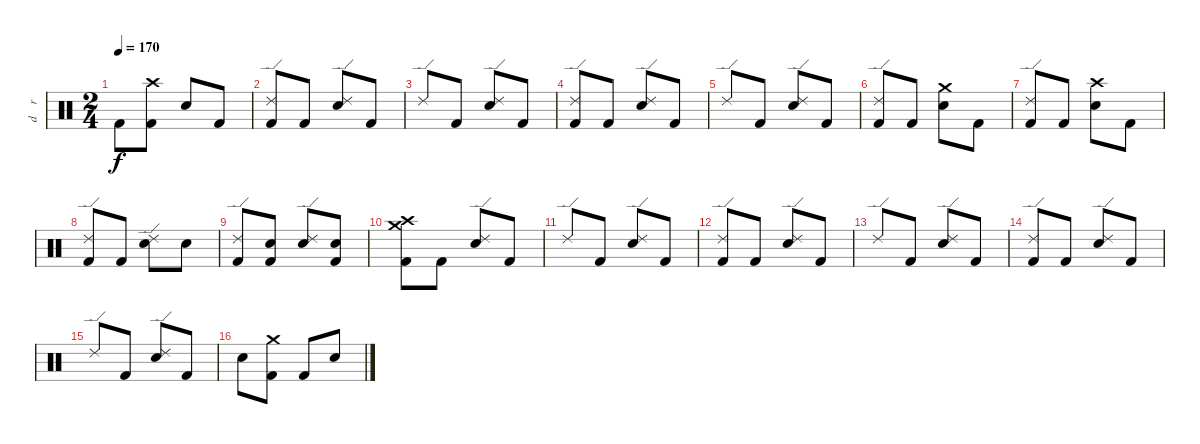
\track ("d    r     u     m    s" "d    r    ") {instrument percussion}
\staff {score}
\articulation defaults
\ts (2 4)
\tempo 170
\clef neutral
\ks c "Kick (hit) 2".8{dy f}
("Crash high (hit)" "Kick (hit) 2").8 "Electric Snare (hit)".8 "Kick (hit) 2".8 |
("Ride (edge) 2" "Kick (hit) 2").8 "Kick (hit) 2".8 ("Ride (edge) 2" "Electric Snare (hit)").8 "Kick (hit) 2".8 |
"Ride (edge) 2".8 "Kick (hit) 2".8 ("Ride (edge) 2" "Electric Snare (hit)").8 "Kick (hit) 2".8 |
("Ride (edge) 2" "Kick (hit) 2").8 "Kick (hit) 2".8 ("Ride (edge) 2" "Electric Snare (hit)").8 "Kick (hit) 2".8 |
"Ride (edge) 2".8 "Kick (hit) 2".8 ("Ride (edge) 2" "Electric Snare (hit)").8 "Kick (hit) 2".8 |
("Ride (edge) 2" "Kick (hit) 2").8 "Kick (hit) 2".8 ("Crash medium (hit)" "Electric Snare (hit)").8 "Kick (hit) 2".8 |
("Ride (edge) 2" "Kick (hit) 2").8 "Kick (hit) 2".8 ("Crash high (hit)" "Electric Snare (hit)").8 "Kick (hit) 2".8 |
("Ride (edge) 2" "Kick (hit) 2").8 "Kick (hit) 2".8 ("Ride (edge) 2" "Electric Snare (hit)").8 "Electric Snare (hit)".8 |
("Ride (edge) 2" "Kick (hit) 2").8 ("Electric Snare (hit)" "Kick (hit) 2").8 ("Ride (edge) 2" "Electric Snare (hit)").8 ("Electric Snare (hit)" "Kick (hit) 2").8 |
("Crash high (hit)" "Crash medium (hit)" "Kick (hit) 2").8 "Kick (hit) 2".8 ("Ride (edge) 2" "Electric Snare (hit)").8 "Kick (hit) 2".8 |
"Ride (edge) 2".8 "Kick (hit) 2".8 ("Ride (edge) 2" "Electric Snare (hit)").8 "Kick (hit) 2".8 |
("Ride (edge) 2" "Kick (hit) 2").8 "Kick (hit) 2".8 ("Ride (edge) 2" "Electric Snare (hit)").8 "Kick (hit) 2".8 |
"Ride (edge) 2".8 "Kick (hit) 2".8 ("Ride (edge) 2" "Electric Snare (hit)").8 "Kick (hit) 2".8 |
("Ride (edge) 2" "Kick (hit) 2").8 "Kick (hit) 2".8 ("Ride (edge) 2" "Electric Snare (hit)").8 "Kick (hit) 2".8 |
"Ride (edge) 2".8 "Kick (hit) 2".8 ("Ride (edge) 2" "Electric Snare (hit)").8 "Kick (hit) 2".8 |
"Electric Snare (hit)".8 ("Crash medium (hit)" "Kick (hit) 2").8 "Kick (hit) 2".8 "Electric Snare (hit)".8
